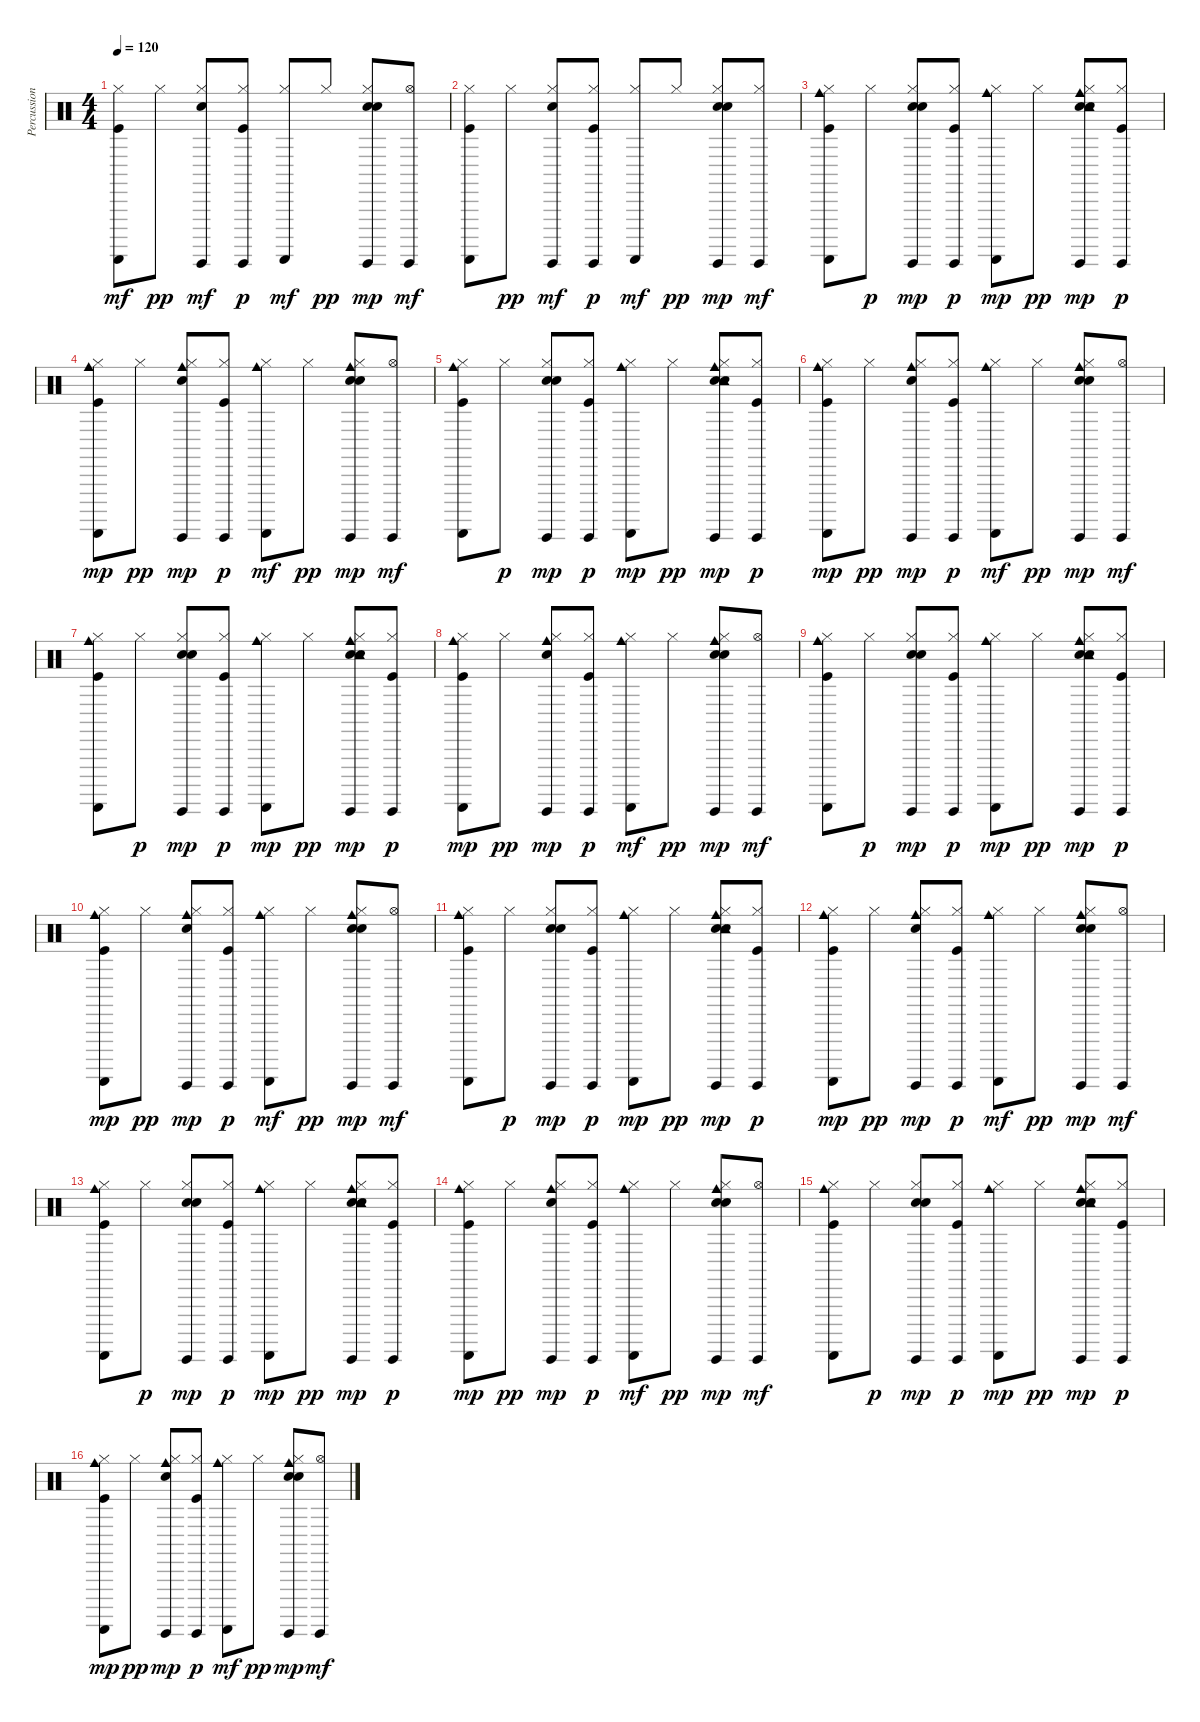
\track ("Percussions" "Percussion") {instrument percussion}
\staff {score}
\articulation defaults
\ts (4 4)
\tempo 120
\clef neutral
\ks c
("Hi-Hat (closed)" "Guiro (scrap-return)" "Kick (hit)").8{dy mf} "Hi-Hat (closed)".8{dy pp} ("Hi-Hat (closed)" "Guiro (hit)" "Snare (hit) 2").8{dy mf} ("Hi-Hat (closed)" "Guiro (hit)" "Kick (hit)").8{dy p} ("Hi-Hat (closed)" "Guiro (scrap-return)").8{dy mf} "Hi-Hat (closed)".8{dy pp} ("Hi-Hat (closed)" "Guiro (hit)" "Snare (hit) 2" "Hand Clap (hit)").8{dy mp} ("Hi-Hat (open)" "Guiro (hit)").8{dy mf} |
("Hi-Hat (closed)" "Guiro (scrap-return)" "Kick (hit)").8 "Hi-Hat (closed)".8{dy pp} ("Hi-Hat (closed)" "Guiro (hit)" "Snare (hit) 2").8{dy mf} ("Hi-Hat (closed)" "Guiro (hit)" "Kick (hit)").8{dy p} ("Hi-Hat (closed)" "Guiro (scrap-return)").8{dy mf} "Hi-Hat (closed)".8{dy pp} ("Hi-Hat (closed)" "Guiro (hit)" "Snare (hit) 2" "Hand Clap (hit)").8{dy mp} ("Hi-Hat (closed)" "Guiro (hit)").8{dy mf} |
("Hi-Hat (closed)" "Guiro (scrap-return)" "Cowbell medium (hit)" "Kick (hit)").8 "Hi-Hat (closed)".8{dy p} ("Hi-Hat (closed)" "Guiro (hit)" "Snare (hit) 2" "Hand Clap (hit)").8{dy mp} ("Hi-Hat (closed)" "Guiro (hit)" "Kick (hit)").8{dy p} ("Hi-Hat (closed)" "Guiro (scrap-return)" "Cowbell medium (hit)").8{dy mp} "Hi-Hat (closed)".8{dy pp} ("Hi-Hat (closed)" "Guiro (hit)" "Snare (hit) 2" "Hand Clap (hit)" "Cowbell medium (hit)" "Tambourine (hit)").8{dy mp} ("Hi-Hat (closed)" "Guiro (hit)" "Kick (hit)").8{dy p} |
("Hi-Hat (closed)" "Guiro (scrap-return)" "Cowbell medium (hit)" "Kick (hit)").8{dy mp} "Hi-Hat (closed)".8{dy pp} ("Hi-Hat (closed)" "Guiro (hit)" "Snare (hit) 2" "Cowbell medium (hit)").8{dy mp} ("Hi-Hat (closed)" "Guiro (hit)" "Kick (hit)").8{dy p} ("Hi-Hat (closed)" "Guiro (scrap-return)" "Cowbell medium (hit)").8{dy mf} "Hi-Hat (closed)".8{dy pp} ("Hi-Hat (closed)" "Guiro (hit)" "Snare (hit) 2" "Cowbell medium (hit)" "Hand Clap (hit)").8{dy mp} ("Hi-Hat (open)" "Guiro (hit)").8{dy mf} |
("Hi-Hat (closed)" "Guiro (scrap-return)" "Cowbell medium (hit)" "Kick (hit)").8 "Hi-Hat (closed)".8{dy p} ("Hi-Hat (closed)" "Guiro (hit)" "Snare (hit) 2" "Hand Clap (hit)").8{dy mp} ("Hi-Hat (closed)" "Guiro (hit)" "Kick (hit)").8{dy p} ("Hi-Hat (closed)" "Guiro (scrap-return)" "Cowbell medium (hit)").8{dy mp} "Hi-Hat (closed)".8{dy pp} ("Hi-Hat (closed)" "Guiro (hit)" "Snare (hit) 2" "Hand Clap (hit)" "Cowbell medium (hit)" "Tambourine (hit)").8{dy mp} ("Hi-Hat (closed)" "Guiro (hit)" "Kick (hit)").8{dy p} |
("Hi-Hat (closed)" "Guiro (scrap-return)" "Cowbell medium (hit)" "Kick (hit)").8{dy mp} "Hi-Hat (closed)".8{dy pp} ("Hi-Hat (closed)" "Guiro (hit)" "Snare (hit) 2" "Cowbell medium (hit)").8{dy mp} ("Hi-Hat (closed)" "Guiro (hit)" "Kick (hit)").8{dy p} ("Hi-Hat (closed)" "Guiro (scrap-return)" "Cowbell medium (hit)").8{dy mf} "Hi-Hat (closed)".8{dy pp} ("Hi-Hat (closed)" "Guiro (hit)" "Snare (hit) 2" "Cowbell medium (hit)" "Hand Clap (hit)").8{dy mp} ("Hi-Hat (open)" "Guiro (hit)").8{dy mf} |
("Hi-Hat (closed)" "Guiro (scrap-return)" "Cowbell medium (hit)" "Kick (hit)").8 "Hi-Hat (closed)".8{dy p} ("Hi-Hat (closed)" "Guiro (hit)" "Snare (hit) 2" "Hand Clap (hit)").8{dy mp} ("Hi-Hat (closed)" "Guiro (hit)" "Kick (hit)").8{dy p} ("Hi-Hat (closed)" "Guiro (scrap-return)" "Cowbell medium (hit)").8{dy mp} "Hi-Hat (closed)".8{dy pp} ("Hi-Hat (closed)" "Guiro (hit)" "Snare (hit) 2" "Hand Clap (hit)" "Cowbell medium (hit)" "Tambourine (hit)").8{dy mp} ("Hi-Hat (closed)" "Guiro (hit)" "Kick (hit)").8{dy p} |
("Hi-Hat (closed)" "Guiro (scrap-return)" "Cowbell medium (hit)" "Kick (hit)").8{dy mp} "Hi-Hat (closed)".8{dy pp} ("Hi-Hat (closed)" "Guiro (hit)" "Snare (hit) 2" "Cowbell medium (hit)").8{dy mp} ("Hi-Hat (closed)" "Guiro (hit)" "Kick (hit)").8{dy p} ("Hi-Hat (closed)" "Guiro (scrap-return)" "Cowbell medium (hit)").8{dy mf} "Hi-Hat (closed)".8{dy pp} ("Hi-Hat (closed)" "Guiro (hit)" "Snare (hit) 2" "Cowbell medium (hit)" "Hand Clap (hit)").8{dy mp} ("Hi-Hat (open)" "Guiro (hit)").8{dy mf} |
("Hi-Hat (closed)" "Guiro (scrap-return)" "Cowbell medium (hit)" "Kick (hit)").8 "Hi-Hat (closed)".8{dy p} ("Hi-Hat (closed)" "Guiro (hit)" "Snare (hit) 2" "Hand Clap (hit)").8{dy mp} ("Hi-Hat (closed)" "Guiro (hit)" "Kick (hit)").8{dy p} ("Hi-Hat (closed)" "Guiro (scrap-return)" "Cowbell medium (hit)").8{dy mp} "Hi-Hat (closed)".8{dy pp} ("Hi-Hat (closed)" "Guiro (hit)" "Snare (hit) 2" "Hand Clap (hit)" "Cowbell medium (hit)" "Tambourine (hit)").8{dy mp} ("Hi-Hat (closed)" "Guiro (hit)" "Kick (hit)").8{dy p} |
("Hi-Hat (closed)" "Guiro (scrap-return)" "Cowbell medium (hit)" "Kick (hit)").8{dy mp} "Hi-Hat (closed)".8{dy pp} ("Hi-Hat (closed)" "Guiro (hit)" "Snare (hit) 2" "Cowbell medium (hit)").8{dy mp} ("Hi-Hat (closed)" "Guiro (hit)" "Kick (hit)").8{dy p} ("Hi-Hat (closed)" "Guiro (scrap-return)" "Cowbell medium (hit)").8{dy mf} "Hi-Hat (closed)".8{dy pp} ("Hi-Hat (closed)" "Guiro (hit)" "Snare (hit) 2" "Cowbell medium (hit)" "Hand Clap (hit)").8{dy mp} ("Hi-Hat (open)" "Guiro (hit)").8{dy mf} |
("Hi-Hat (closed)" "Guiro (scrap-return)" "Cowbell medium (hit)" "Kick (hit)").8 "Hi-Hat (closed)".8{dy p} ("Hi-Hat (closed)" "Guiro (hit)" "Snare (hit) 2" "Hand Clap (hit)").8{dy mp} ("Hi-Hat (closed)" "Guiro (hit)" "Kick (hit)").8{dy p} ("Hi-Hat (closed)" "Guiro (scrap-return)" "Cowbell medium (hit)").8{dy mp} "Hi-Hat (closed)".8{dy pp} ("Hi-Hat (closed)" "Guiro (hit)" "Snare (hit) 2" "Hand Clap (hit)" "Cowbell medium (hit)" "Tambourine (hit)").8{dy mp} ("Hi-Hat (closed)" "Guiro (hit)" "Kick (hit)").8{dy p} |
("Hi-Hat (closed)" "Guiro (scrap-return)" "Cowbell medium (hit)" "Kick (hit)").8{dy mp} "Hi-Hat (closed)".8{dy pp} ("Hi-Hat (closed)" "Guiro (hit)" "Snare (hit) 2" "Cowbell medium (hit)").8{dy mp} ("Hi-Hat (closed)" "Guiro (hit)" "Kick (hit)").8{dy p} ("Hi-Hat (closed)" "Guiro (scrap-return)" "Cowbell medium (hit)").8{dy mf} "Hi-Hat (closed)".8{dy pp} ("Hi-Hat (closed)" "Guiro (hit)" "Snare (hit) 2" "Cowbell medium (hit)" "Hand Clap (hit)").8{dy mp} ("Hi-Hat (open)" "Guiro (hit)").8{dy mf} |
("Hi-Hat (closed)" "Guiro (scrap-return)" "Cowbell medium (hit)" "Kick (hit)").8 "Hi-Hat (closed)".8{dy p} ("Hi-Hat (closed)" "Guiro (hit)" "Snare (hit) 2" "Hand Clap (hit)").8{dy mp} ("Hi-Hat (closed)" "Guiro (hit)" "Kick (hit)").8{dy p} ("Hi-Hat (closed)" "Guiro (scrap-return)" "Cowbell medium (hit)").8{dy mp} "Hi-Hat (closed)".8{dy pp} ("Hi-Hat (closed)" "Guiro (hit)" "Snare (hit) 2" "Hand Clap (hit)" "Cowbell medium (hit)" "Tambourine (hit)").8{dy mp} ("Hi-Hat (closed)" "Guiro (hit)" "Kick (hit)").8{dy p} |
("Hi-Hat (closed)" "Guiro (scrap-return)" "Cowbell medium (hit)" "Kick (hit)").8{dy mp} "Hi-Hat (closed)".8{dy pp} ("Hi-Hat (closed)" "Guiro (hit)" "Snare (hit) 2" "Cowbell medium (hit)").8{dy mp} ("Hi-Hat (closed)" "Guiro (hit)" "Kick (hit)").8{dy p} ("Hi-Hat (closed)" "Guiro (scrap-return)" "Cowbell medium (hit)").8{dy mf} "Hi-Hat (closed)".8{dy pp} ("Hi-Hat (closed)" "Guiro (hit)" "Snare (hit) 2" "Cowbell medium (hit)" "Hand Clap (hit)").8{dy mp} ("Hi-Hat (open)" "Guiro (hit)").8{dy mf} |
("Hi-Hat (closed)" "Guiro (scrap-return)" "Cowbell medium (hit)" "Kick (hit)").8 "Hi-Hat (closed)".8{dy p} ("Hi-Hat (closed)" "Guiro (hit)" "Snare (hit) 2" "Hand Clap (hit)").8{dy mp} ("Hi-Hat (closed)" "Guiro (hit)" "Kick (hit)").8{dy p} ("Hi-Hat (closed)" "Guiro (scrap-return)" "Cowbell medium (hit)").8{dy mp} "Hi-Hat (closed)".8{dy pp} ("Hi-Hat (closed)" "Guiro (hit)" "Snare (hit) 2" "Hand Clap (hit)" "Cowbell medium (hit)" "Tambourine (hit)").8{dy mp} ("Hi-Hat (closed)" "Guiro (hit)" "Kick (hit)").8{dy p} |
("Hi-Hat (closed)" "Guiro (scrap-return)" "Cowbell medium (hit)" "Kick (hit)").8{dy mp} "Hi-Hat (closed)".8{dy pp} ("Hi-Hat (closed)" "Guiro (hit)" "Snare (hit) 2" "Cowbell medium (hit)").8{dy mp} ("Hi-Hat (closed)" "Guiro (hit)" "Kick (hit)").8{dy p} ("Hi-Hat (closed)" "Guiro (scrap-return)" "Cowbell medium (hit)").8{dy mf} "Hi-Hat (closed)".8{dy pp} ("Hi-Hat (closed)" "Guiro (hit)" "Snare (hit) 2" "Cowbell medium (hit)" "Hand Clap (hit)").8{dy mp} ("Hi-Hat (open)" "Guiro (hit)").8{dy mf}
